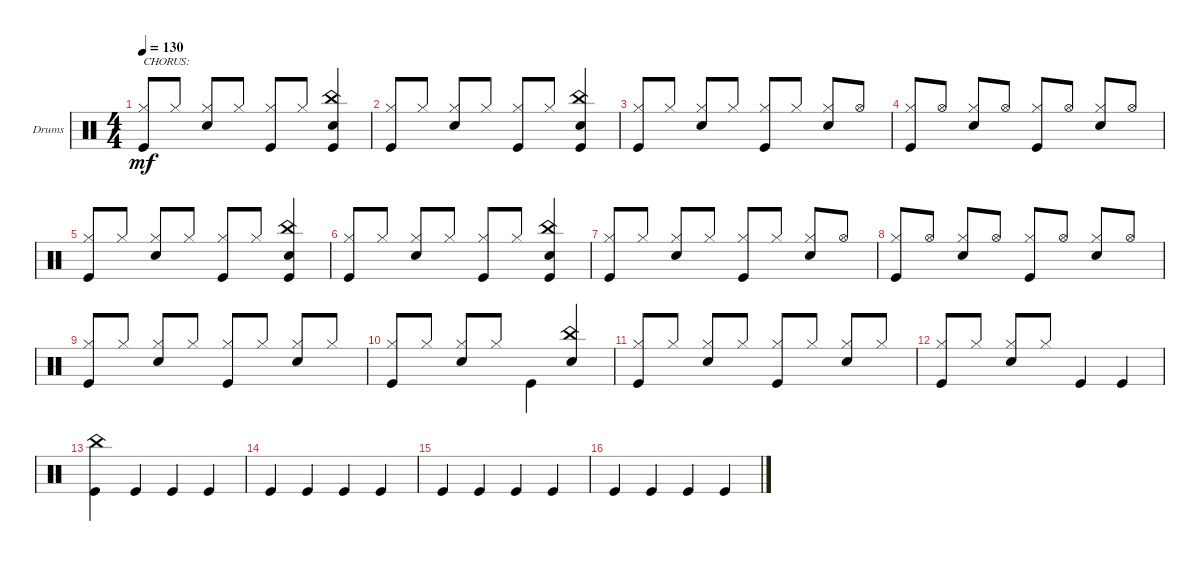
\defaultSystemsLayout 4
\bracketExtendMode groupsimilarinstruments
\firstSystemTrackNameOrientation horizontal
\otherSystemsTrackNameOrientation horizontal
\track ("Drumkit" "Drums") {instrument percussion}
\staff {score}
\articulation defaults
\ts (4 4)
\tempo 130
\clef neutral
\scale
0.333333
\ks c
("Hi-Hat (closed)" "Kick (hit)").8{txt "CHORUS:" dy mf beam invert} "Hi-Hat (closed)".8 ("Hi-Hat (closed)" "Snare (hit) 2").8{beam invert} "Hi-Hat (closed)".8 ("Hi-Hat (closed)" "Kick (hit)").8{beam invert} "Hi-Hat (closed)".8 ("Snare (hit) 2" "China (hit)" "Kick (hit)").4{beam invert} |
\scale
0.333333 ("Hi-Hat (closed)" "Kick (hit)").8{beam invert} "Hi-Hat (closed)".8 ("Hi-Hat (closed)" "Snare (hit) 2").8{beam invert} "Hi-Hat (closed)".8 ("Hi-Hat (closed)" "Kick (hit)").8{beam invert} "Hi-Hat (closed)".8 ("Snare (hit) 2" "China (hit)" "Kick (hit)").4{beam invert} |
\scale
0.333333 ("Hi-Hat (closed)" "Kick (hit)").8{beam invert} "Hi-Hat (closed)".8 ("Hi-Hat (closed)" "Snare (hit) 2").8{beam invert} "Hi-Hat (closed)".8 ("Hi-Hat (closed)" "Kick (hit)").8{beam invert} "Hi-Hat (closed)".8 ("Hi-Hat (closed)" "Snare (hit) 2").8{beam invert} "Hi-Hat (open)".8 |
\scale
0.333333 ("Hi-Hat (closed)" "Kick (hit)").8{beam invert} "Hi-Hat (open)".8 ("Hi-Hat (closed)" "Snare (hit) 2").8{beam invert} "Hi-Hat (open)".8 ("Hi-Hat (closed)" "Kick (hit)").8{beam invert} "Hi-Hat (open)".8 ("Hi-Hat (closed)" "Snare (hit) 2").8{beam invert} "Hi-Hat (open)".8 |
\scale
0.333333 ("Hi-Hat (closed)" "Kick (hit)").8{beam invert} "Hi-Hat (closed)".8 ("Hi-Hat (closed)" "Snare (hit) 2").8{beam invert} "Hi-Hat (closed)".8 ("Hi-Hat (closed)" "Kick (hit)").8{beam invert} "Hi-Hat (closed)".8 ("Snare (hit) 2" "China (hit)" "Kick (hit)").4{beam invert} |
\scale
0.333333 ("Hi-Hat (closed)" "Kick (hit)").8{beam invert} "Hi-Hat (closed)".8 ("Hi-Hat (closed)" "Snare (hit) 2").8{beam invert} "Hi-Hat (closed)".8 ("Hi-Hat (closed)" "Kick (hit)").8{beam invert} "Hi-Hat (closed)".8 ("Snare (hit) 2" "China (hit)" "Kick (hit)").4{beam invert} |
\scale
0.333333 ("Hi-Hat (closed)" "Kick (hit)").8{beam invert} "Hi-Hat (closed)".8 ("Hi-Hat (closed)" "Snare (hit) 2").8{beam invert} "Hi-Hat (closed)".8 ("Hi-Hat (closed)" "Kick (hit)").8{beam invert} "Hi-Hat (closed)".8 ("Hi-Hat (closed)" "Snare (hit) 2").8{beam invert} "Hi-Hat (open)".8 |
\scale
0.333333 ("Hi-Hat (closed)" "Kick (hit)").8{beam invert} "Hi-Hat (open)".8 ("Hi-Hat (closed)" "Snare (hit) 2").8{beam invert} "Hi-Hat (open)".8 ("Hi-Hat (closed)" "Kick (hit)").8{beam invert} "Hi-Hat (open)".8 ("Hi-Hat (closed)" "Snare (hit) 2").8{beam invert} "Hi-Hat (open)".8 |
\scale
0.333333 ("Kick (hit)" "Hi-Hat (closed)").8{beam invert} "Hi-Hat (closed)".8 ("Hi-Hat (closed)" "Snare (hit) 2").8{beam invert} "Hi-Hat (closed)".8 ("Hi-Hat (closed)" "Kick (hit)").8{beam invert} "Hi-Hat (closed)".8 ("Hi-Hat (closed)" "Snare (hit) 2").8{beam invert} "Hi-Hat (closed)".8 |
\scale
0.333333 ("Hi-Hat (closed)" "Kick (hit)").8{beam invert} "Hi-Hat (closed)".8 ("Hi-Hat (closed)" "Snare (hit) 2").8{beam invert} "Hi-Hat (closed)".8 "Kick (hit)".4 ("Snare (hit) 2" "China (hit)").4{beam invert} |
\scale
0.333333 ("Kick (hit)" "Hi-Hat (closed)").8{beam invert} "Hi-Hat (closed)".8 ("Hi-Hat (closed)" "Snare (hit) 2").8{beam invert} "Hi-Hat (closed)".8 ("Hi-Hat (closed)" "Kick (hit)").8{beam invert} "Hi-Hat (closed)".8 ("Hi-Hat (closed)" "Snare (hit) 2").8{beam invert} "Hi-Hat (closed)".8 |
\scale
0.333333 ("Hi-Hat (closed)" "Kick (hit)").8{beam invert} "Hi-Hat (closed)".8 ("Hi-Hat (closed)" "Snare (hit) 2").8{beam invert} "Hi-Hat (closed)".8 "Kick (hit)".4 "Kick (hit)".4 |
\scale
0.333333 ("Kick (hit)" "China (hit)").4 "Kick (hit)".4 "Kick (hit)".4 "Kick (hit)".4 |
\scale
0.333333 "Kick (hit)".4 "Kick (hit)".4 "Kick (hit)".4 "Kick (hit)".4 |
\scale
0.333333 "Kick (hit)".4 "Kick (hit)".4 "Kick (hit)".4 "Kick (hit)".4 |
\scale
0.333333 "Kick (hit)".4 "Kick (hit)".4 "Kick (hit)".4 "Kick (hit)".4
